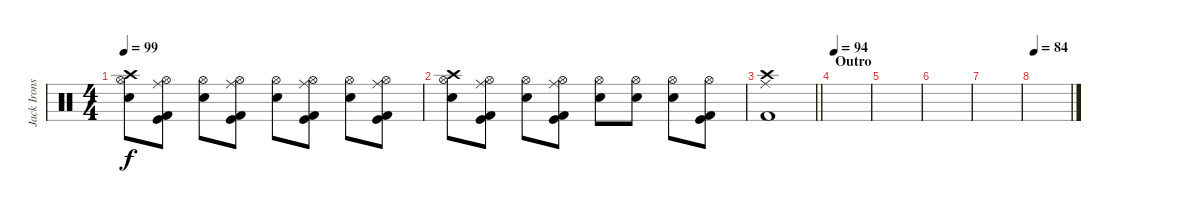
\track ("Jack Irons" "Jack Irons") {instrument percussion}
\staff {score}
\articulation defaults
\ts (4 4)
\tempo 99
\clef neutral
\ks c
("Crash high (hit)" "Hi-Hat (open)" "Electric Snare (hit)").8{dy f} ("Hi-Hat (open)" "Ride (middle)" "Kick (hit)" "Kick (hit) 2").8 ("Hi-Hat (open)" "Electric Snare (hit)").8 ("Hi-Hat (open)" "Ride (middle)" "Kick (hit)" "Kick (hit) 2").8 ("Hi-Hat (open)" "Electric Snare (hit)").8 ("Hi-Hat (open)" "Ride (middle)" "Kick (hit)" "Kick (hit) 2").8 ("Hi-Hat (open)" "Electric Snare (hit)").8 ("Hi-Hat (open)" "Ride (middle)" "Kick (hit)" "Kick (hit) 2").8 |
("Crash high (hit)" "Hi-Hat (open)" "Electric Snare (hit)").8 ("Hi-Hat (open)" "Ride (middle)" "Kick (hit)" "Kick (hit) 2").8 ("Hi-Hat (open)" "Electric Snare (hit)").8 ("Hi-Hat (open)" "Ride (middle)" "Kick (hit)" "Kick (hit) 2").8 ("Hi-Hat (open)" "Electric Snare (hit)").8 ("Hi-Hat (open)" "Electric Snare (hit)").8 ("Hi-Hat (open)" "Electric Snare (hit)").8 ("Hi-Hat (open)" "Kick (hit)" "Kick (hit) 2").8 |
\barLineRight lightlight
("Crash high (hit)" "Ride (middle)" "Kick (hit) 2").1 |
\section ("" "Outro")
\tempo 94
|
|
|
|
\tempo 84
